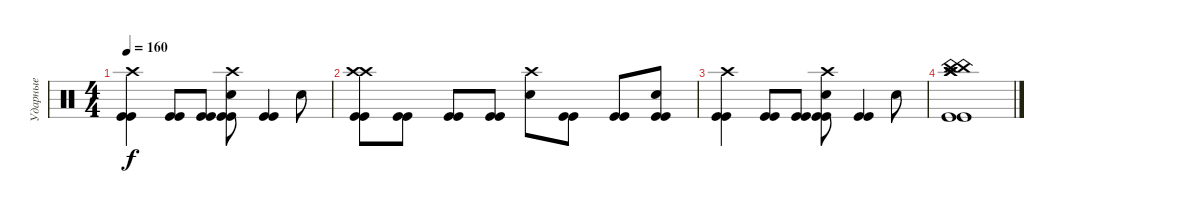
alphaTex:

\track ("Ударные" "Ударные") {instrument percussion}
\staff {score}
\articulation defaults
\ts (4 4)
\tempo 160
\clef neutral
\ks c
("Crash high (hit)" "Kick (hit)" "Kick (hit)").4{dy f} ("Kick (hit)" "Kick (hit)").8 ("Kick (hit)" "Kick (hit)").8 ("Crash high (hit)" "Electric Snare (hit)" "Kick (hit)" "Kick (hit)").8 ("Kick (hit)" "Kick (hit)").4 "Electric Snare (hit)".8 |
("Crash high (hit)" "Crash high (hit)" "Kick (hit)" "Kick (hit)").8 ("Kick (hit)" "Kick (hit)").8 ("Kick (hit)" "Kick (hit)").8 ("Kick (hit)" "Kick (hit)").8 ("Crash high (hit)" "Electric Snare (hit)").8 ("Kick (hit)" "Kick (hit)").8 ("Kick (hit)" "Kick (hit)").8 ("Electric Snare (hit)" "Kick (hit)" "Kick (hit)").8 |
("Crash high (hit)" "Kick (hit)" "Kick (hit)").4 ("Kick (hit)" "Kick (hit)").8 ("Kick (hit)" "Kick (hit)").8 ("Crash high (hit)" "Electric Snare (hit)" "Kick (hit)" "Kick (hit)").8 ("Kick (hit)" "Kick (hit)").4 "Electric Snare (hit)".8 |
("Crash high (hit)" "China (hit)" "Crash high (hit)" "China (hit)" "Kick (hit)" "Kick (hit)").1
